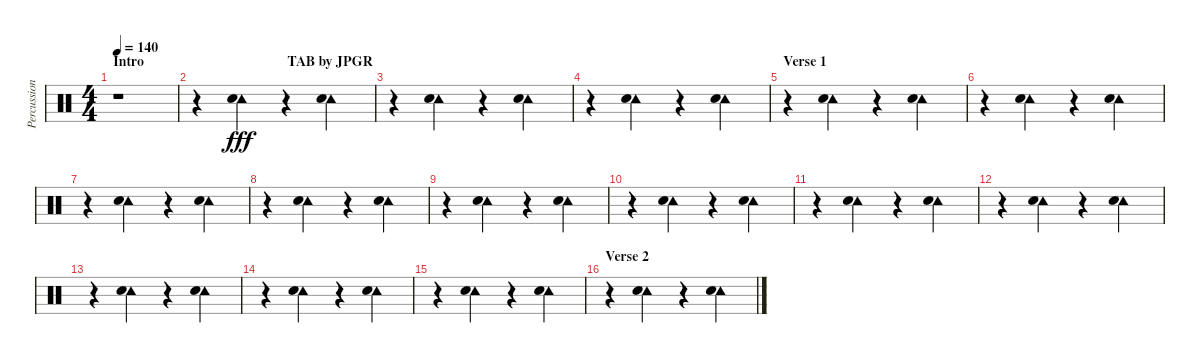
\track ("Percussion" "Percussion") {instrument percussion}
\staff {score}
\articulation defaults
\ts (4 4)
\section ("" "Intro                                         TAB by JPGR")
\tempo 140
\clef neutral
\ks c
r.1{dy fff} |
r.4 ("Tambourine (hit)" "Hand Clap (hit)").4 r.4 ("Tambourine (hit)" "Hand Clap (hit)").4 |
r.4 ("Tambourine (hit)" "Hand Clap (hit)").4 r.4 ("Tambourine (hit)" "Hand Clap (hit)").4 |
r.4 ("Tambourine (hit)" "Hand Clap (hit)").4 r.4 ("Tambourine (hit)" "Hand Clap (hit)").4 |
\section ("" "Verse 1")
r.4 ("Tambourine (hit)" "Hand Clap (hit)").4 r.4 ("Tambourine (hit)" "Hand Clap (hit)").4 |
r.4 ("Tambourine (hit)" "Hand Clap (hit)").4 r.4 ("Tambourine (hit)" "Hand Clap (hit)").4 |
r.4 ("Tambourine (hit)" "Hand Clap (hit)").4 r.4 ("Tambourine (hit)" "Hand Clap (hit)").4 |
r.4 ("Tambourine (hit)" "Hand Clap (hit)").4 r.4 ("Tambourine (hit)" "Hand Clap (hit)").4 |
r.4 ("Tambourine (hit)" "Hand Clap (hit)").4 r.4 ("Tambourine (hit)" "Hand Clap (hit)").4 |
r.4 ("Tambourine (hit)" "Hand Clap (hit)").4 r.4 ("Tambourine (hit)" "Hand Clap (hit)").4 |
r.4 ("Tambourine (hit)" "Hand Clap (hit)").4 r.4 ("Tambourine (hit)" "Hand Clap (hit)").4 |
r.4 ("Tambourine (hit)" "Hand Clap (hit)").4 r.4 ("Tambourine (hit)" "Hand Clap (hit)").4 |
r.4 ("Tambourine (hit)" "Hand Clap (hit)").4 r.4 ("Tambourine (hit)" "Hand Clap (hit)").4 |
r.4 ("Tambourine (hit)" "Hand Clap (hit)").4 r.4 ("Tambourine (hit)" "Hand Clap (hit)").4 |
r.4 ("Tambourine (hit)" "Hand Clap (hit)").4 r.4 ("Tambourine (hit)" "Hand Clap (hit)").4 |
\section ("" "Verse 2")
r.4 ("Tambourine (hit)" "Hand Clap (hit)").4 r.4 ("Tambourine (hit)" "Hand Clap (hit)").4
